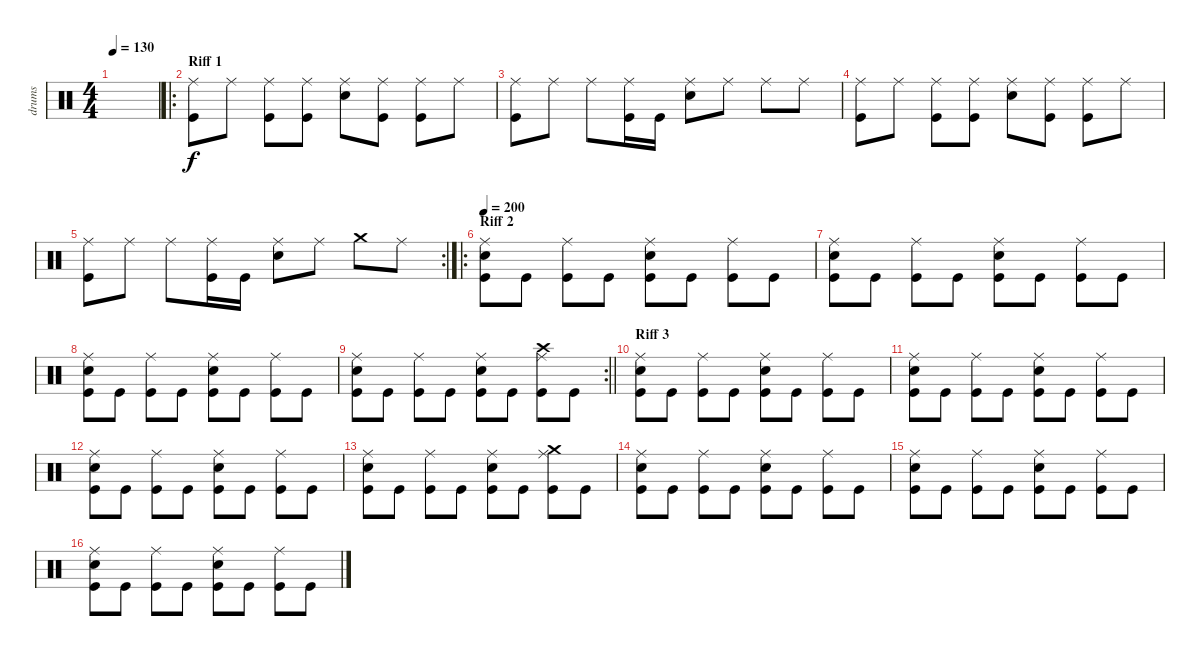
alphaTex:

\track ("drums" "drums") {instrument percussion}
\staff {score}
\articulation defaults
\ts (4 4)
\tempo 130
\clef neutral
\ks c
|
\ro
\section ("" "Riff 1")
("Ride (middle)" "Kick (hit)").8 "Ride (middle)".8 ("Ride (middle)" "Kick (hit)").8 ("Ride (middle)" "Kick (hit)").8 ("Snare (hit) 2" "Ride (middle)").8 ("Ride (middle)" "Kick (hit)").8 ("Ride (middle)" "Kick (hit)").8 "Ride (middle)".8 |
("Ride (middle)" "Kick (hit)").8 "Ride (middle)".8 "Ride (middle)".8 ("Ride (middle)" "Kick (hit)").16 "Kick (hit)".16 ("Snare (hit) 2" "Ride (middle)").8 "Ride (middle)".8 "Ride (middle)".8 "Ride (middle)".8 |
("Ride (middle)" "Kick (hit)").8 "Ride (middle)".8 ("Ride (middle)" "Kick (hit)").8 ("Ride (middle)" "Kick (hit)").8 ("Snare (hit) 2" "Ride (middle)").8 ("Ride (middle)" "Kick (hit)").8 ("Ride (middle)" "Kick (hit)").8 "Ride (middle)".8 |
\rc 2
("Ride (middle)" "Kick (hit)").8 "Ride (middle)".8 "Ride (middle)".8 ("Ride (middle)" "Kick (hit)").16 "Kick (hit)".16 ("Snare (hit) 2" "Ride (middle)").8 "Ride (middle)".8 "Crash medium (hit)".8 "Ride (middle)".8 |
\ro
\section ("" "Riff 2")
\tempo 200
("Ride (middle)" "Snare (hit) 2" "Kick (hit)").8 "Kick (hit)".8 ("Ride (middle)" "Kick (hit)").8 "Kick (hit)".8 ("Ride (middle)" "Snare (hit) 2" "Kick (hit)").8 "Kick (hit)".8 ("Ride (middle)" "Kick (hit)").8 "Kick (hit)".8 |
("Ride (middle)" "Snare (hit) 2" "Kick (hit)").8 "Kick (hit)".8 ("Ride (middle)" "Kick (hit)").8 "Kick (hit)".8 ("Ride (middle)" "Snare (hit) 2" "Kick (hit)").8 "Kick (hit)".8 ("Ride (middle)" "Kick (hit)").8 "Kick (hit)".8 |
("Ride (middle)" "Snare (hit) 2" "Kick (hit)").8 "Kick (hit)".8 ("Ride (middle)" "Kick (hit)").8 "Kick (hit)".8 ("Ride (middle)" "Snare (hit) 2" "Kick (hit)").8 "Kick (hit)".8 ("Ride (middle)" "Kick (hit)").8 "Kick (hit)".8 |
\rc 2
\barLineRight lightlight
("Ride (middle)" "Snare (hit) 2" "Kick (hit)").8 "Kick (hit)".8 ("Ride (middle)" "Kick (hit)").8 "Kick (hit)".8 ("Ride (middle)" "Snare (hit) 2" "Kick (hit)").8 "Kick (hit)".8 ("Ride (middle)" "Crash high (hit)" "Kick (hit)").8 "Kick (hit)".8 |
\section ("" "Riff 3")
("Ride (middle)" "Snare (hit) 2" "Kick (hit)").8 "Kick (hit)".8 ("Ride (middle)" "Kick (hit)").8 "Kick (hit)".8 ("Ride (middle)" "Snare (hit) 2" "Kick (hit)").8 "Kick (hit)".8 ("Ride (middle)" "Kick (hit)").8 "Kick (hit)".8 |
("Ride (middle)" "Snare (hit) 2" "Kick (hit)").8 "Kick (hit)".8 ("Ride (middle)" "Kick (hit)").8 "Kick (hit)".8 ("Ride (middle)" "Snare (hit) 2" "Kick (hit)").8 "Kick (hit)".8 ("Ride (middle)" "Kick (hit)").8 "Kick (hit)".8 |
("Ride (middle)" "Snare (hit) 2" "Kick (hit)").8 "Kick (hit)".8 ("Ride (middle)" "Kick (hit)").8 "Kick (hit)".8 ("Ride (middle)" "Snare (hit) 2" "Kick (hit)").8 "Kick (hit)".8 ("Ride (middle)" "Kick (hit)").8 "Kick (hit)".8 |
("Ride (middle)" "Snare (hit) 2" "Kick (hit)").8 "Kick (hit)".8 ("Ride (middle)" "Kick (hit)").8 "Kick (hit)".8 ("Ride (middle)" "Snare (hit) 2" "Kick (hit)").8 "Kick (hit)".8 ("Ride (middle)" "Crash medium (hit)" "Kick (hit)").8 "Kick (hit)".8 |
("Ride (middle)" "Snare (hit) 2" "Kick (hit)").8 "Kick (hit)".8 ("Ride (middle)" "Kick (hit)").8 "Kick (hit)".8 ("Ride (middle)" "Snare (hit) 2" "Kick (hit)").8 "Kick (hit)".8 ("Ride (middle)" "Kick (hit)").8 "Kick (hit)".8 |
("Ride (middle)" "Snare (hit) 2" "Kick (hit)").8 "Kick (hit)".8 ("Ride (middle)" "Kick (hit)").8 "Kick (hit)".8 ("Ride (middle)" "Snare (hit) 2" "Kick (hit)").8 "Kick (hit)".8 ("Ride (middle)" "Kick (hit)").8 "Kick (hit)".8 |
("Ride (middle)" "Snare (hit) 2" "Kick (hit)").8 "Kick (hit)".8 ("Ride (middle)" "Kick (hit)").8 "Kick (hit)".8 ("Ride (middle)" "Snare (hit) 2" "Kick (hit)").8 "Kick (hit)".8 ("Ride (middle)" "Kick (hit)").8 "Kick (hit)".8
